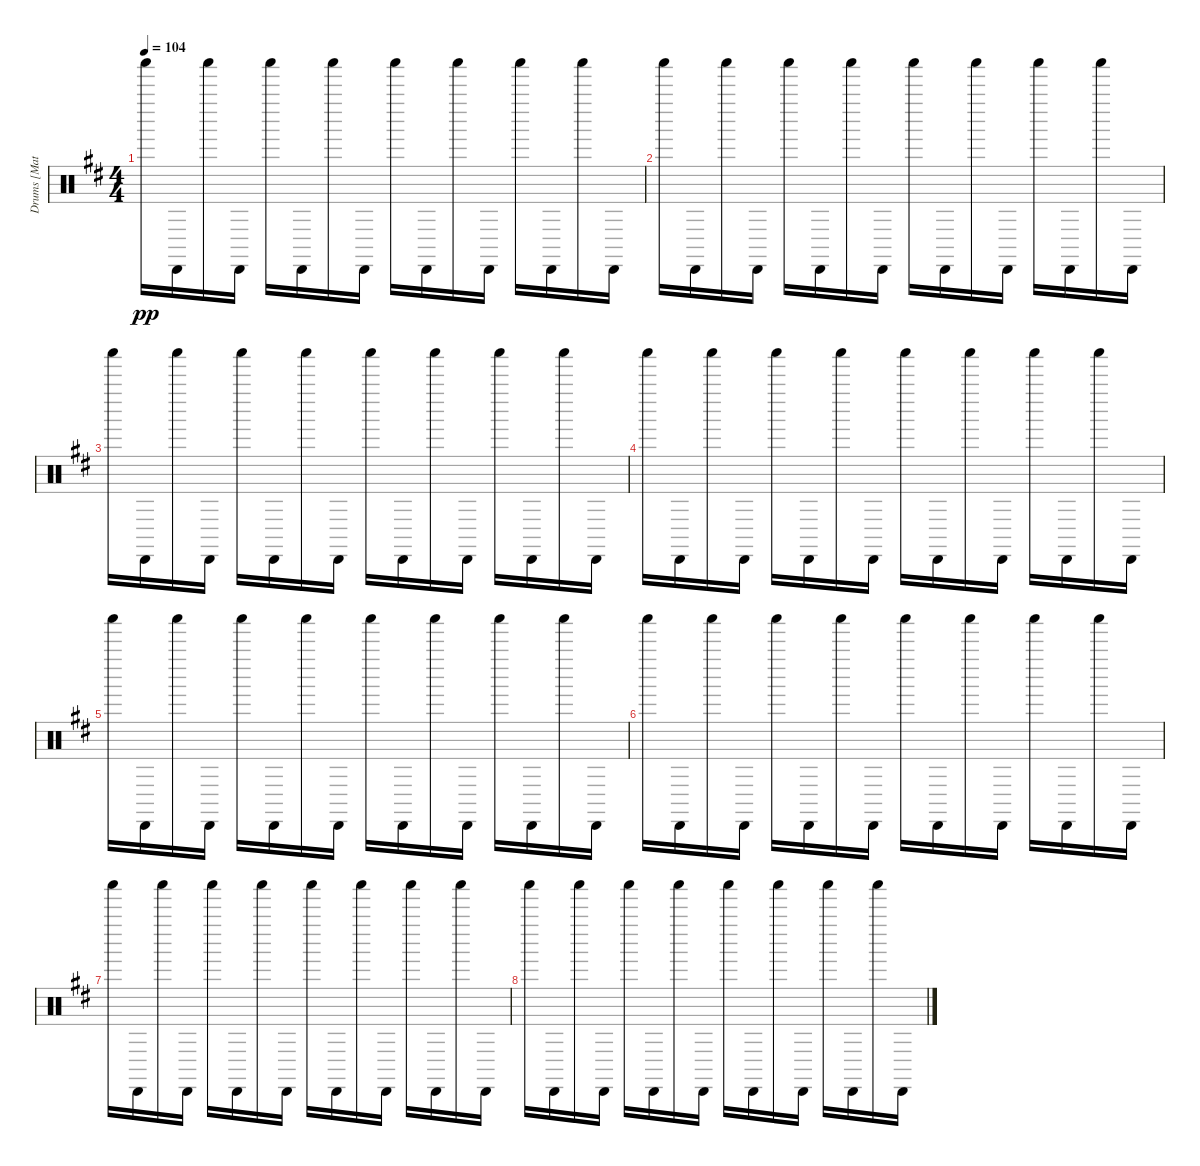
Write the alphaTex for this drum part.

\track ("Drums [Matt]" "Drums [Mat") {instrument percussion}
\staff {score}
\articulation defaults
\ts (4 4)
\tempo 104
\clef neutral
\ks d "Shaker (hit)".16{dy pp} "Cabasa (hit)".16 "Shaker (hit)".16 "Cabasa (hit)".16 "Shaker (hit)".16 "Cabasa (hit)".16 "Shaker (hit)".16 "Cabasa (hit)".16 "Shaker (hit)".16 "Cabasa (hit)".16 "Shaker (hit)".16 "Cabasa (hit)".16 "Shaker (hit)".16 "Cabasa (hit)".16 "Shaker (hit)".16 "Cabasa (hit)".16
|
"Shaker (hit)".16 "Cabasa (hit)".16 "Shaker (hit)".16 "Cabasa (hit)".16 "Shaker (hit)".16 "Cabasa (hit)".16 "Shaker (hit)".16 "Cabasa (hit)".16 "Shaker (hit)".16 "Cabasa (hit)".16 "Shaker (hit)".16 "Cabasa (hit)".16 "Shaker (hit)".16 "Cabasa (hit)".16 "Shaker (hit)".16 "Cabasa (hit)".16 |
"Shaker (hit)".16 "Cabasa (hit)".16 "Shaker (hit)".16 "Cabasa (hit)".16 "Shaker (hit)".16 "Cabasa (hit)".16 "Shaker (hit)".16 "Cabasa (hit)".16 "Shaker (hit)".16 "Cabasa (hit)".16 "Shaker (hit)".16 "Cabasa (hit)".16 "Shaker (hit)".16 "Cabasa (hit)".16 "Shaker (hit)".16 "Cabasa (hit)".16 |
"Shaker (hit)".16 "Cabasa (hit)".16 "Shaker (hit)".16 "Cabasa (hit)".16 "Shaker (hit)".16 "Cabasa (hit)".16 "Shaker (hit)".16 "Cabasa (hit)".16 "Shaker (hit)".16 "Cabasa (hit)".16 "Shaker (hit)".16 "Cabasa (hit)".16 "Shaker (hit)".16 "Cabasa (hit)".16 "Shaker (hit)".16 "Cabasa (hit)".16 |
"Shaker (hit)".16 "Cabasa (hit)".16 "Shaker (hit)".16 "Cabasa (hit)".16 "Shaker (hit)".16 "Cabasa (hit)".16 "Shaker (hit)".16 "Cabasa (hit)".16 "Shaker (hit)".16 "Cabasa (hit)".16 "Shaker (hit)".16 "Cabasa (hit)".16 "Shaker (hit)".16 "Cabasa (hit)".16 "Shaker (hit)".16 "Cabasa (hit)".16 |
"Shaker (hit)".16 "Cabasa (hit)".16 "Shaker (hit)".16 "Cabasa (hit)".16 "Shaker (hit)".16 "Cabasa (hit)".16 "Shaker (hit)".16 "Cabasa (hit)".16 "Shaker (hit)".16 "Cabasa (hit)".16 "Shaker (hit)".16 "Cabasa (hit)".16 "Shaker (hit)".16 "Cabasa (hit)".16 "Shaker (hit)".16 "Cabasa (hit)".16 |
"Shaker (hit)".16 "Cabasa (hit)".16 "Shaker (hit)".16 "Cabasa (hit)".16 "Shaker (hit)".16 "Cabasa (hit)".16 "Shaker (hit)".16 "Cabasa (hit)".16 "Shaker (hit)".16 "Cabasa (hit)".16 "Shaker (hit)".16 "Cabasa (hit)".16 "Shaker (hit)".16 "Cabasa (hit)".16 "Shaker (hit)".16 "Cabasa (hit)".16 |
"Shaker (hit)".16 "Cabasa (hit)".16 "Shaker (hit)".16 "Cabasa (hit)".16 "Shaker (hit)".16 "Cabasa (hit)".16 "Shaker (hit)".16 "Cabasa (hit)".16 "Shaker (hit)".16 "Cabasa (hit)".16 "Shaker (hit)".16 "Cabasa (hit)".16 "Shaker (hit)".16 "Cabasa (hit)".16 "Shaker (hit)".16 "Cabasa (hit)".16
